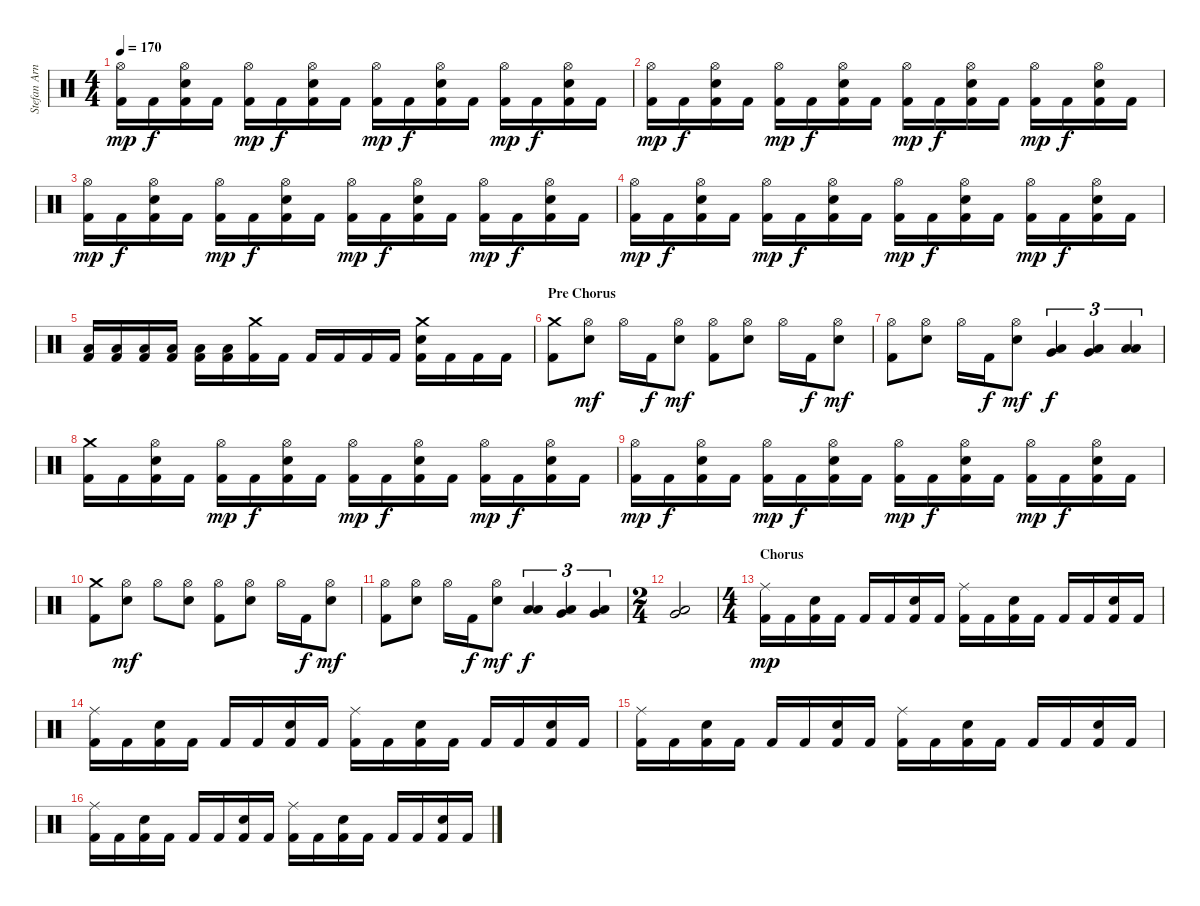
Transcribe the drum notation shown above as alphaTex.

\track ("Stefan Arnold" "Stefan Arn") {instrument percussion}
\staff {score}
\articulation defaults
\ts (4 4)
\tempo 170
\clef neutral
\ks c
("Hi-Hat (open)" "Kick (hit) 2").16{dy mp} "Kick (hit) 2".16{dy f} ("Hi-Hat (open)" "Electric Snare (hit)" "Kick (hit) 2").16 "Kick (hit) 2".16 ("Hi-Hat (open)" "Kick (hit) 2").16{dy mp} "Kick (hit) 2".16{dy f} ("Hi-Hat (open)" "Electric Snare (hit)" "Kick (hit) 2").16 "Kick (hit) 2".16 ("Hi-Hat (open)" "Kick (hit) 2").16{dy mp} "Kick (hit) 2".16{dy f} ("Hi-Hat (open)" "Electric Snare (hit)" "Kick (hit) 2").16 "Kick (hit) 2".16 ("Hi-Hat (open)" "Kick (hit) 2").16{dy mp} "Kick (hit) 2".16{dy f} ("Hi-Hat (open)" "Electric Snare (hit)" "Kick (hit) 2").16 "Kick (hit) 2".16 |
("Hi-Hat (open)" "Kick (hit) 2").16{dy mp} "Kick (hit) 2".16{dy f} ("Hi-Hat (open)" "Electric Snare (hit)" "Kick (hit) 2").16 "Kick (hit) 2".16 ("Hi-Hat (open)" "Kick (hit) 2").16{dy mp} "Kick (hit) 2".16{dy f} ("Hi-Hat (open)" "Electric Snare (hit)" "Kick (hit) 2").16 "Kick (hit) 2".16 ("Hi-Hat (open)" "Kick (hit) 2").16{dy mp} "Kick (hit) 2".16{dy f} ("Hi-Hat (open)" "Electric Snare (hit)" "Kick (hit) 2").16 "Kick (hit) 2".16 ("Hi-Hat (open)" "Kick (hit) 2").16{dy mp} "Kick (hit) 2".16{dy f} ("Hi-Hat (open)" "Electric Snare (hit)" "Kick (hit) 2").16 "Kick (hit) 2".16 |
("Hi-Hat (open)" "Kick (hit) 2").16{dy mp} "Kick (hit) 2".16{dy f} ("Hi-Hat (open)" "Electric Snare (hit)" "Kick (hit) 2").16 "Kick (hit) 2".16 ("Hi-Hat (open)" "Kick (hit) 2").16{dy mp} "Kick (hit) 2".16{dy f} ("Hi-Hat (open)" "Electric Snare (hit)" "Kick (hit) 2").16 "Kick (hit) 2".16 ("Hi-Hat (open)" "Kick (hit) 2").16{dy mp} "Kick (hit) 2".16{dy f} ("Hi-Hat (open)" "Electric Snare (hit)" "Kick (hit) 2").16 "Kick (hit) 2".16 ("Hi-Hat (open)" "Kick (hit) 2").16{dy mp} "Kick (hit) 2".16{dy f} ("Hi-Hat (open)" "Electric Snare (hit)" "Kick (hit) 2").16 "Kick (hit) 2".16 |
("Hi-Hat (open)" "Kick (hit) 2").16{dy mp} "Kick (hit) 2".16{dy f} ("Hi-Hat (open)" "Electric Snare (hit)" "Kick (hit) 2").16 "Kick (hit) 2".16 ("Hi-Hat (open)" "Kick (hit) 2").16{dy mp} "Kick (hit) 2".16{dy f} ("Hi-Hat (open)" "Electric Snare (hit)" "Kick (hit) 2").16 "Kick (hit) 2".16 ("Hi-Hat (open)" "Kick (hit) 2").16{dy mp} "Kick (hit) 2".16{dy f} ("Hi-Hat (open)" "Electric Snare (hit)" "Kick (hit) 2").16 "Kick (hit) 2".16 ("Hi-Hat (open)" "Kick (hit) 2").16{dy mp} "Kick (hit) 2".16{dy f} ("Hi-Hat (open)" "Electric Snare (hit)" "Kick (hit) 2").16 "Kick (hit) 2".16 |
("Low Tom (hit)" "Kick (hit) 2").16 ("Low Tom (hit)" "Kick (hit) 2").16 ("Low Tom (hit)" "Kick (hit) 2").16 ("Low Tom (hit)" "Kick (hit) 2").16 ("Low Tom (hit)" "Kick (hit) 2").16 ("Low Tom (hit)" "Kick (hit) 2").16 ("Crash medium (hit)" "Kick (hit) 2").16 "Kick (hit) 2".16 "Kick (hit) 2".16 "Kick (hit) 2".16 "Kick (hit) 2".16 "Kick (hit) 2".16 ("Crash medium (hit)" "Electric Snare (hit)" "Kick (hit) 2").16 "Kick (hit) 2".16 "Kick (hit) 2".16 "Kick (hit) 2".16 |
\section ("" "Pre Chorus")
("Crash medium (hit)" "Kick (hit) 2").8 ("Hi-Hat (open)" "Electric Snare (hit)").8{dy mf} "Hi-Hat (open)".16 "Kick (hit) 2".16{dy f} ("Hi-Hat (open)" "Electric Snare (hit)").8{dy mf} ("Hi-Hat (open)" "Kick (hit) 2").8 ("Hi-Hat (open)" "Electric Snare (hit)").8 "Hi-Hat (open)".16 "Kick (hit) 2".16{dy f} ("Hi-Hat (open)" "Electric Snare (hit)").8{dy mf} |
("Hi-Hat (open)" "Kick (hit) 2").8 ("Hi-Hat (open)" "Electric Snare (hit)").8 "Hi-Hat (open)".16 "Kick (hit) 2".16{dy f} ("Hi-Hat (open)" "Electric Snare (hit)").8{dy mf} ("Low Tom (hit)" "Very Low Tom (hit)").4{tu (3 2) dy f} ("Very Low Tom (hit)" "Low Floor Tom (hit)").4{tu (3 2)} ("Low Floor Tom (hit)" "Low Floor Tom (hit)").4{tu (3 2)} |
("Crash medium (hit)" "Kick (hit) 2").16 "Kick (hit) 2".16 ("Hi-Hat (open)" "Electric Snare (hit)" "Kick (hit) 2").16 "Kick (hit) 2".16 ("Hi-Hat (open)" "Kick (hit) 2").16{dy mp} "Kick (hit) 2".16{dy f} ("Hi-Hat (open)" "Electric Snare (hit)" "Kick (hit) 2").16 "Kick (hit) 2".16 ("Hi-Hat (open)" "Kick (hit) 2").16{dy mp} "Kick (hit) 2".16{dy f} ("Hi-Hat (open)" "Electric Snare (hit)" "Kick (hit) 2").16 "Kick (hit) 2".16 ("Hi-Hat (open)" "Kick (hit) 2").16{dy mp} "Kick (hit) 2".16{dy f} ("Hi-Hat (open)" "Electric Snare (hit)" "Kick (hit) 2").16 "Kick (hit) 2".16 |
("Hi-Hat (open)" "Kick (hit) 2").16{dy mp} "Kick (hit) 2".16{dy f} ("Hi-Hat (open)" "Electric Snare (hit)" "Kick (hit) 2").16 "Kick (hit) 2".16 ("Hi-Hat (open)" "Kick (hit) 2").16{dy mp} "Kick (hit) 2".16{dy f} ("Hi-Hat (open)" "Electric Snare (hit)" "Kick (hit) 2").16 "Kick (hit) 2".16 ("Hi-Hat (open)" "Kick (hit) 2").16{dy mp} "Kick (hit) 2".16{dy f} ("Hi-Hat (open)" "Electric Snare (hit)" "Kick (hit) 2").16 "Kick (hit) 2".16 ("Hi-Hat (open)" "Kick (hit) 2").16{dy mp} "Kick (hit) 2".16{dy f} ("Hi-Hat (open)" "Electric Snare (hit)" "Kick (hit) 2").16 "Kick (hit) 2".16 |
("Crash medium (hit)" "Kick (hit) 2").8 ("Hi-Hat (open)" "Electric Snare (hit)").8{dy mf} "Hi-Hat (open)".8 ("Hi-Hat (open)" "Electric Snare (hit)").8 ("Hi-Hat (open)" "Kick (hit) 2").8 ("Hi-Hat (open)" "Electric Snare (hit)").8 "Hi-Hat (open)".16 "Kick (hit) 2".16{dy f} ("Hi-Hat (open)" "Electric Snare (hit)").8{dy mf} |
("Hi-Hat (open)" "Kick (hit) 2").8 ("Hi-Hat (open)" "Electric Snare (hit)").8 "Hi-Hat (open)".16 "Kick (hit) 2".16{dy f} ("Hi-Hat (open)" "Electric Snare (hit)").8{dy mf} ("Low Tom (hit)" "Low Tom (hit)").4{tu (3 2) dy f} ("Low Tom (hit)" "Very Low Tom (hit)").4{tu (3 2)} ("Very Low Tom (hit)" "Low Floor Tom (hit)").4{tu (3 2)} |
\ts (2 4)
("Very Low Tom (hit)" "Low Floor Tom (hit)").2 |
\ts (4 4)
\section ("" "Chorus")
("Ride (middle)" "Kick (hit) 2").16{dy mp} "Kick (hit) 2".16 ("Electric Snare (hit)" "Kick (hit) 2").16 "Kick (hit) 2".16 "Kick (hit) 2".16 "Kick (hit) 2".16 ("Electric Snare (hit)" "Kick (hit) 2").16 "Kick (hit) 2".16 ("Ride (middle)" "Kick (hit) 2").16 "Kick (hit) 2".16 ("Electric Snare (hit)" "Kick (hit) 2").16 "Kick (hit) 2".16 "Kick (hit) 2".16 "Kick (hit) 2".16 ("Electric Snare (hit)" "Kick (hit) 2").16 "Kick (hit) 2".16 |
("Ride (middle)" "Kick (hit) 2").16 "Kick (hit) 2".16 ("Electric Snare (hit)" "Kick (hit) 2").16 "Kick (hit) 2".16 "Kick (hit) 2".16 "Kick (hit) 2".16 ("Electric Snare (hit)" "Kick (hit) 2").16 "Kick (hit) 2".16 ("Ride (middle)" "Kick (hit) 2").16 "Kick (hit) 2".16 ("Electric Snare (hit)" "Kick (hit) 2").16 "Kick (hit) 2".16 "Kick (hit) 2".16 "Kick (hit) 2".16 ("Electric Snare (hit)" "Kick (hit) 2").16 "Kick (hit) 2".16 |
("Ride (middle)" "Kick (hit) 2").16 "Kick (hit) 2".16 ("Electric Snare (hit)" "Kick (hit) 2").16 "Kick (hit) 2".16 "Kick (hit) 2".16 "Kick (hit) 2".16 ("Electric Snare (hit)" "Kick (hit) 2").16 "Kick (hit) 2".16 ("Ride (middle)" "Kick (hit) 2").16 "Kick (hit) 2".16 ("Electric Snare (hit)" "Kick (hit) 2").16 "Kick (hit) 2".16 "Kick (hit) 2".16 "Kick (hit) 2".16 ("Electric Snare (hit)" "Kick (hit) 2").16 "Kick (hit) 2".16 |
("Ride (middle)" "Kick (hit) 2").16 "Kick (hit) 2".16 ("Electric Snare (hit)" "Kick (hit) 2").16 "Kick (hit) 2".16 "Kick (hit) 2".16 "Kick (hit) 2".16 ("Electric Snare (hit)" "Kick (hit) 2").16 "Kick (hit) 2".16 ("Ride (middle)" "Kick (hit) 2").16 "Kick (hit) 2".16 ("Electric Snare (hit)" "Kick (hit) 2").16 "Kick (hit) 2".16 "Kick (hit) 2".16 "Kick (hit) 2".16 ("Electric Snare (hit)" "Kick (hit) 2").16 "Kick (hit) 2".16
